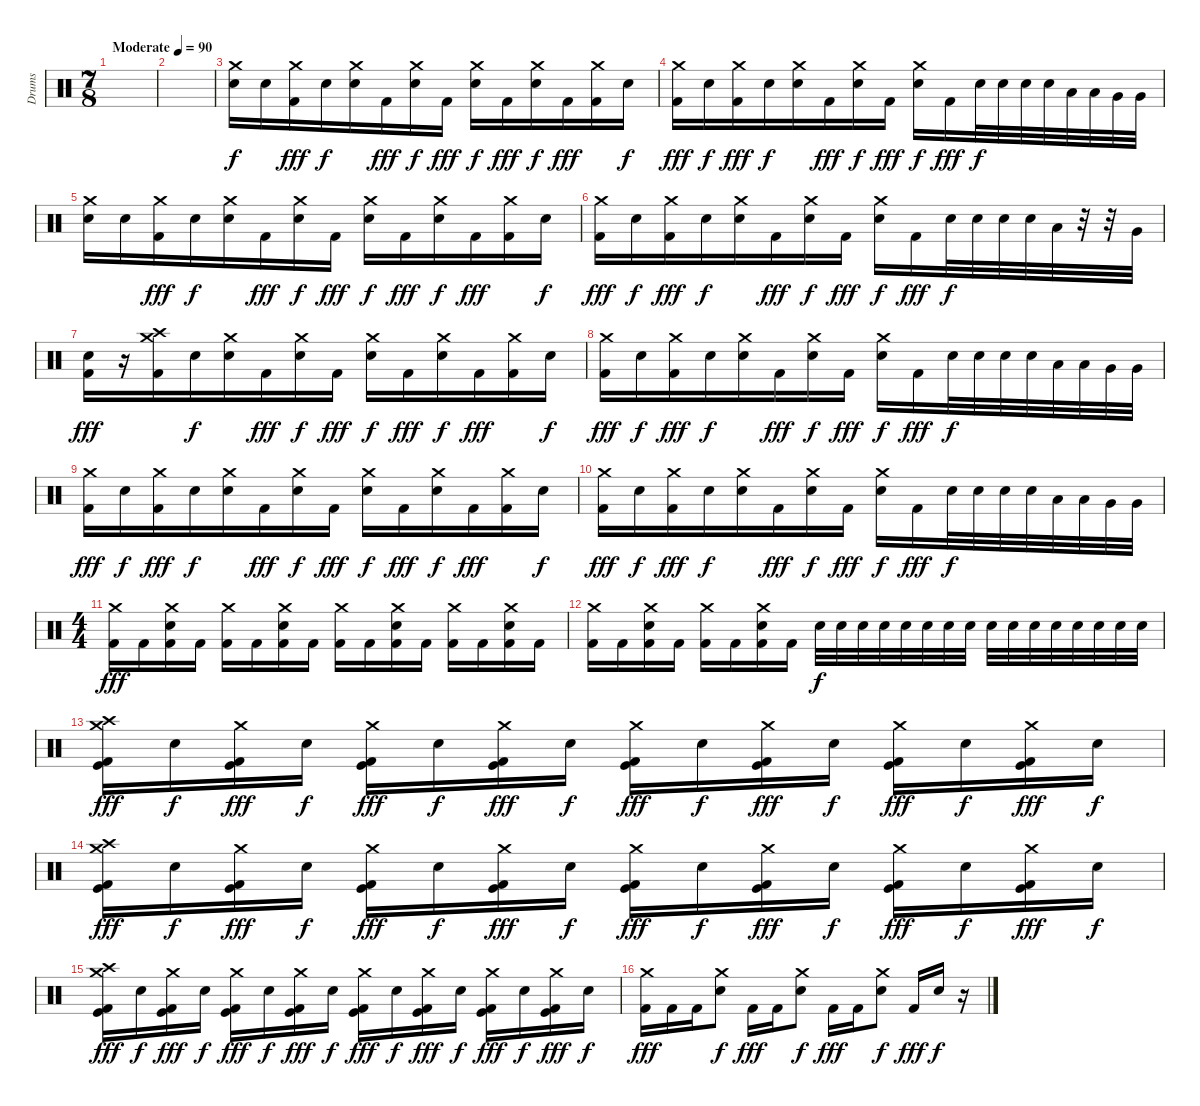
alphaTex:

\track ("Drums" "Drums") {instrument percussion}
\staff {score}
\articulation defaults
\ts (7 8)
\tempo (90 "Moderate")
\clef neutral
\ks c
|
|
("Crash medium (hit)" "Electric Snare (hit)").16 "Electric Snare (hit)".16 ("Crash medium (hit)" "Kick (hit) 2").16{dy fff} "Electric Snare (hit)".16{dy f} ("Crash medium (hit)" "Electric Snare (hit)").16 "Kick (hit) 2".16{dy fff} ("Crash medium (hit)" "Electric Snare (hit)").16{dy f} "Kick (hit) 2".16{dy fff} ("Crash medium (hit)" "Electric Snare (hit)").16{dy f} "Kick (hit) 2".16{dy fff} ("Crash medium (hit)" "Electric Snare (hit)").16{dy f} "Kick (hit) 2".16{dy fff} ("Crash medium (hit)" "Kick (hit) 2").16 "Electric Snare (hit)".16{dy f} |
("Crash medium (hit)" "Kick (hit) 2").16{dy fff} "Electric Snare (hit)".16{dy f} ("Crash medium (hit)" "Kick (hit) 2").16{dy fff} "Electric Snare (hit)".16{dy f} ("Crash medium (hit)" "Electric Snare (hit)").16 "Kick (hit) 2".16{dy fff} ("Crash medium (hit)" "Electric Snare (hit)").16{dy f} "Kick (hit) 2".16{dy fff} ("Crash medium (hit)" "Electric Snare (hit)").16{dy f} "Kick (hit) 2".16{dy fff} "Electric Snare (hit)".32{dy f} "Electric Snare (hit)".32 "Electric Snare (hit)".32 "Electric Snare (hit)".32 "Low Tom (hit)".32 "Low Tom (hit)".32 "Very Low Tom (hit)".32 "Very Low Tom (hit)".32 |
("Crash medium (hit)" "Electric Snare (hit)").16 "Electric Snare (hit)".16 ("Crash medium (hit)" "Kick (hit) 2").16{dy fff} "Electric Snare (hit)".16{dy f} ("Crash medium (hit)" "Electric Snare (hit)").16 "Kick (hit) 2".16{dy fff} ("Crash medium (hit)" "Electric Snare (hit)").16{dy f} "Kick (hit) 2".16{dy fff} ("Crash medium (hit)" "Electric Snare (hit)").16{dy f} "Kick (hit) 2".16{dy fff} ("Crash medium (hit)" "Electric Snare (hit)").16{dy f} "Kick (hit) 2".16{dy fff} ("Crash medium (hit)" "Kick (hit) 2").16 "Electric Snare (hit)".16{dy f} |
("Crash medium (hit)" "Kick (hit) 2").16{dy fff} "Electric Snare (hit)".16{dy f} ("Crash medium (hit)" "Kick (hit) 2").16{dy fff} "Electric Snare (hit)".16{dy f} ("Crash medium (hit)" "Electric Snare (hit)").16 "Kick (hit) 2".16{dy fff} ("Crash medium (hit)" "Electric Snare (hit)").16{dy f} "Kick (hit) 2".16{dy fff} ("Crash medium (hit)" "Electric Snare (hit)").16{dy f} "Kick (hit) 2".16{dy fff} "Electric Snare (hit)".32{dy f} "Electric Snare (hit)".32 "Electric Snare (hit)".32 "Electric Snare (hit)".32 "Low Tom (hit)".32 r.32 r.32 "Very Low Tom (hit)".32 |
("Electric Snare (hit)" "Kick (hit) 2").16{dy fff} r.16 ("Crash high (hit)" "Crash medium (hit)" "Kick (hit) 2").16 "Electric Snare (hit)".16{dy f} ("Crash medium (hit)" "Electric Snare (hit)").16 "Kick (hit) 2".16{dy fff} ("Crash medium (hit)" "Electric Snare (hit)").16{dy f} "Kick (hit) 2".16{dy fff} ("Crash medium (hit)" "Electric Snare (hit)").16{dy f} "Kick (hit) 2".16{dy fff} ("Crash medium (hit)" "Electric Snare (hit)").16{dy f} "Kick (hit) 2".16{dy fff} ("Crash medium (hit)" "Kick (hit) 2").16 "Electric Snare (hit)".16{dy f} |
("Crash medium (hit)" "Kick (hit) 2").16{dy fff} "Electric Snare (hit)".16{dy f} ("Crash medium (hit)" "Kick (hit) 2").16{dy fff} "Electric Snare (hit)".16{dy f} ("Crash medium (hit)" "Electric Snare (hit)").16 "Kick (hit) 2".16{dy fff} ("Crash medium (hit)" "Electric Snare (hit)").16{dy f} "Kick (hit) 2".16{dy fff} ("Crash medium (hit)" "Electric Snare (hit)").16{dy f} "Kick (hit) 2".16{dy fff} "Electric Snare (hit)".32{dy f} "Electric Snare (hit)".32 "Electric Snare (hit)".32 "Electric Snare (hit)".32 "Low Tom (hit)".32 "Low Tom (hit)".32 "Very Low Tom (hit)".32 "Very Low Tom (hit)".32 |
("Crash medium (hit)" "Kick (hit) 2").16{dy fff} "Electric Snare (hit)".16{dy f} ("Crash medium (hit)" "Kick (hit) 2").16{dy fff} "Electric Snare (hit)".16{dy f} ("Crash medium (hit)" "Electric Snare (hit)").16 "Kick (hit) 2".16{dy fff} ("Crash medium (hit)" "Electric Snare (hit)").16{dy f} "Kick (hit) 2".16{dy fff} ("Crash medium (hit)" "Electric Snare (hit)").16{dy f} "Kick (hit) 2".16{dy fff} ("Crash medium (hit)" "Electric Snare (hit)").16{dy f} "Kick (hit) 2".16{dy fff} ("Crash medium (hit)" "Kick (hit) 2").16 "Electric Snare (hit)".16{dy f} |
("Crash medium (hit)" "Kick (hit) 2").16{dy fff} "Electric Snare (hit)".16{dy f} ("Crash medium (hit)" "Kick (hit) 2").16{dy fff} "Electric Snare (hit)".16{dy f} ("Crash medium (hit)" "Electric Snare (hit)").16 "Kick (hit) 2".16{dy fff} ("Crash medium (hit)" "Electric Snare (hit)").16{dy f} "Kick (hit) 2".16{dy fff} ("Crash medium (hit)" "Electric Snare (hit)").16{dy f} "Kick (hit) 2".16{dy fff} "Electric Snare (hit)".32{dy f} "Electric Snare (hit)".32 "Electric Snare (hit)".32 "Electric Snare (hit)".32 "Low Tom (hit)".32 "Low Tom (hit)".32 "Very Low Tom (hit)".32 "Very Low Tom (hit)".32 |
\ts (4 4)
("Crash medium (hit)" "Kick (hit) 2").16{dy fff} "Kick (hit) 2".16 ("Crash medium (hit)" "Electric Snare (hit)" "Kick (hit) 2").16 "Kick (hit) 2".16 ("Crash medium (hit)" "Kick (hit) 2").16 "Kick (hit) 2".16 ("Crash medium (hit)" "Electric Snare (hit)" "Kick (hit) 2").16 "Kick (hit) 2".16 ("Crash medium (hit)" "Kick (hit) 2").16 "Kick (hit) 2".16 ("Crash medium (hit)" "Electric Snare (hit)" "Kick (hit) 2").16 "Kick (hit) 2".16 ("Crash medium (hit)" "Kick (hit) 2").16 "Kick (hit) 2".16 ("Crash medium (hit)" "Electric Snare (hit)" "Kick (hit) 2").16 "Kick (hit) 2".16 |
("Crash medium (hit)" "Kick (hit) 2").16 "Kick (hit) 2".16 ("Crash medium (hit)" "Electric Snare (hit)" "Kick (hit) 2").16 "Kick (hit) 2".16 ("Crash medium (hit)" "Kick (hit) 2").16 "Kick (hit) 2".16 ("Crash medium (hit)" "Electric Snare (hit)" "Kick (hit) 2").16 "Kick (hit) 2".16 "Electric Snare (hit)".32{dy f} "Electric Snare (hit)".32 "Electric Snare (hit)".32 "Electric Snare (hit)".32 "Electric Snare (hit)".32 "Electric Snare (hit)".32 "Electric Snare (hit)".32 "Electric Snare (hit)".32 "Electric Snare (hit)".32 "Electric Snare (hit)".32 "Electric Snare (hit)".32 "Electric Snare (hit)".32 "Electric Snare (hit)".32 "Electric Snare (hit)".32 "Electric Snare (hit)".32 "Electric Snare (hit)".32 |
("Crash medium (hit)" "Crash high (hit)" "Kick (hit)" "Kick (hit) 2").16{dy fff} "Electric Snare (hit)".16{dy f} ("Crash medium (hit)" "Kick (hit)" "Kick (hit) 2").16{dy fff} "Electric Snare (hit)".16{dy f} ("Crash medium (hit)" "Kick (hit)" "Kick (hit) 2").16{dy fff} "Electric Snare (hit)".16{dy f} ("Crash medium (hit)" "Kick (hit)" "Kick (hit) 2").16{dy fff} "Electric Snare (hit)".16{dy f} ("Crash medium (hit)" "Kick (hit)" "Kick (hit) 2").16{dy fff} "Electric Snare (hit)".16{dy f} ("Crash medium (hit)" "Kick (hit)" "Kick (hit) 2").16{dy fff} "Electric Snare (hit)".16{dy f} ("Crash medium (hit)" "Kick (hit)" "Kick (hit) 2").16{dy fff} "Electric Snare (hit)".16{dy f} ("Crash medium (hit)" "Kick (hit)" "Kick (hit) 2").16{dy fff} "Electric Snare (hit)".16{dy f} |
("Crash medium (hit)" "Crash high (hit)" "Kick (hit)" "Kick (hit) 2").16{dy fff} "Electric Snare (hit)".16{dy f} ("Crash medium (hit)" "Kick (hit)" "Kick (hit) 2").16{dy fff} "Electric Snare (hit)".16{dy f} ("Crash medium (hit)" "Kick (hit)" "Kick (hit) 2").16{dy fff} "Electric Snare (hit)".16{dy f} ("Crash medium (hit)" "Kick (hit)" "Kick (hit) 2").16{dy fff} "Electric Snare (hit)".16{dy f} ("Crash medium (hit)" "Kick (hit)" "Kick (hit) 2").16{dy fff} "Electric Snare (hit)".16{dy f} ("Crash medium (hit)" "Kick (hit)" "Kick (hit) 2").16{dy fff} "Electric Snare (hit)".16{dy f} ("Crash medium (hit)" "Kick (hit)" "Kick (hit) 2").16{dy fff} "Electric Snare (hit)".16{dy f} ("Crash medium (hit)" "Kick (hit)" "Kick (hit) 2").16{dy fff} "Electric Snare (hit)".16{dy f} |
("Crash medium (hit)" "Crash high (hit)" "Kick (hit)" "Kick (hit) 2").16{dy fff} "Electric Snare (hit)".16{dy f} ("Crash medium (hit)" "Kick (hit)" "Kick (hit) 2").16{dy fff} "Electric Snare (hit)".16{dy f} ("Crash medium (hit)" "Kick (hit)" "Kick (hit) 2").16{dy fff} "Electric Snare (hit)".16{dy f} ("Crash medium (hit)" "Kick (hit)" "Kick (hit) 2").16{dy fff} "Electric Snare (hit)".16{dy f} ("Crash medium (hit)" "Kick (hit)" "Kick (hit) 2").16{dy fff} "Electric Snare (hit)".16{dy f} ("Crash medium (hit)" "Kick (hit)" "Kick (hit) 2").16{dy fff} "Electric Snare (hit)".16{dy f} ("Crash medium (hit)" "Kick (hit)" "Kick (hit) 2").16{dy fff} "Electric Snare (hit)".16{dy f} ("Crash medium (hit)" "Kick (hit)" "Kick (hit) 2").16{dy fff} "Electric Snare (hit)".16{dy f} |
("Crash medium (hit)" "Kick (hit) 2").16{dy fff} "Kick (hit) 2".16 "Kick (hit) 2".16 ("Crash medium (hit)" "Electric Snare (hit)").8{dy f} "Kick (hit) 2".16{dy fff} "Kick (hit) 2".16 ("Crash medium (hit)" "Electric Snare (hit)").8{dy f} "Kick (hit) 2".16{dy fff} "Kick (hit) 2".16 ("Crash medium (hit)" "Electric Snare (hit)").8{dy f} "Kick (hit) 2".16{dy fff} "Electric Snare (hit)".16{dy f} r.16
